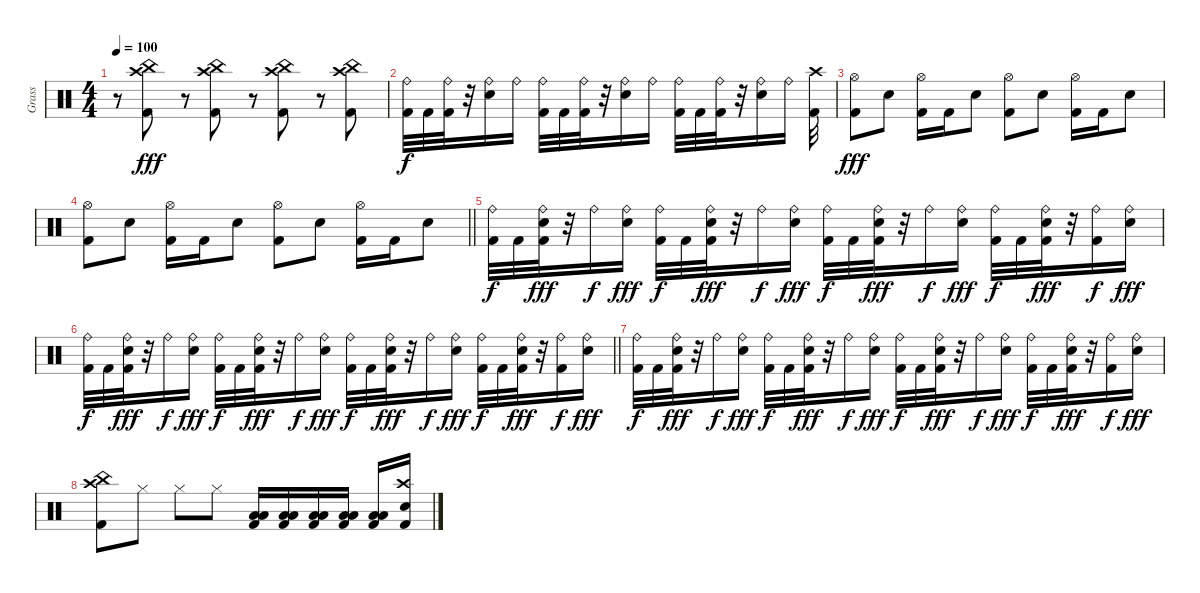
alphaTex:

\track ("Grass" "Grass") {instrument percussion}
\staff {score}
\articulation defaults
\ts (4 4)
\tempo 100
\clef neutral
\ks c
r.8{dy fff} ("Kick (hit) 2" "China (hit)" "Crash high (hit)").8 r.8 ("Kick (hit) 2" "China (hit)" "Crash high (hit)").8 r.8 ("Kick (hit) 2" "China (hit)" "Crash high (hit)").8 r.8 ("Kick (hit) 2" "China (hit)" "Crash high (hit)").8 |
("Kick (hit) 2" "Ride (bell)").32{dy f} "Kick (hit) 2".32 ("Kick (hit) 2" "Ride (bell)").32 r.32 ("Electric Snare (hit)" "Ride (bell)").16 "Ride (bell)".16 ("Kick (hit) 2" "Ride (bell)").32 "Kick (hit) 2".32 ("Kick (hit) 2" "Ride (bell)").32 r.32 ("Electric Snare (hit)" "Ride (bell)").16 "Ride (bell)".16 ("Kick (hit) 2" "Ride (bell)").32 "Kick (hit) 2".32 ("Kick (hit) 2" "Ride (bell)").32 r.32 ("Electric Snare (hit)" "Ride (bell)").16 "Ride (bell)".16 ("Kick (hit) 2" "Crash high (hit)").32 |
("Kick (hit) 2" "Hi-Hat (open)").8{dy fff} "Electric Snare (hit)".8 ("Kick (hit) 2" "Hi-Hat (open)").16 "Kick (hit) 2".16 "Electric Snare (hit)".8 ("Kick (hit) 2" "Hi-Hat (open)").8 "Electric Snare (hit)".8 ("Kick (hit) 2" "Hi-Hat (open)").16 "Kick (hit) 2".16 "Electric Snare (hit)".8 |
\barLineRight lightlight
("Kick (hit) 2" "Hi-Hat (open)").8 "Electric Snare (hit)".8 ("Kick (hit) 2" "Hi-Hat (open)").16 "Kick (hit) 2".16 "Electric Snare (hit)".8 ("Kick (hit) 2" "Hi-Hat (open)").8 "Electric Snare (hit)".8 ("Kick (hit) 2" "Hi-Hat (open)").16 "Kick (hit) 2".16 "Electric Snare (hit)".8 |
("Kick (hit) 2" "Ride (bell)").32{dy f} "Kick (hit) 2".32 ("Kick (hit) 2" "Electric Snare (hit)" "Ride (bell)").32{dy fff} r.32 "Ride (bell)".16{dy f} ("Electric Snare (hit)" "Ride (bell)").16{dy fff} ("Kick (hit) 2" "Ride (bell)").32{dy f} "Kick (hit) 2".32 ("Kick (hit) 2" "Electric Snare (hit)" "Ride (bell)").32{dy fff} r.32 "Ride (bell)".16{dy f} ("Electric Snare (hit)" "Ride (bell)").16{dy fff} ("Kick (hit) 2" "Ride (bell)").32{dy f} "Kick (hit) 2".32 ("Kick (hit) 2" "Electric Snare (hit)" "Ride (bell)").32{dy fff} r.32 "Ride (bell)".16{dy f} ("Electric Snare (hit)" "Ride (bell)").16{dy fff} ("Kick (hit) 2" "Ride (bell)").32{dy f} "Kick (hit) 2".32 ("Kick (hit) 2" "Electric Snare (hit)" "Ride (bell)").32{dy fff} r.32 ("Kick (hit) 2" "Ride (bell)").16{dy f} ("Electric Snare (hit)" "Ride (bell)").16{dy fff} |
\barLineRight lightlight
("Kick (hit) 2" "Ride (bell)").32{dy f} "Kick (hit) 2".32 ("Kick (hit) 2" "Electric Snare (hit)" "Ride (bell)").32{dy fff} r.32 "Ride (bell)".16{dy f} ("Electric Snare (hit)" "Ride (bell)").16{dy fff} ("Kick (hit) 2" "Ride (bell)").32{dy f} "Kick (hit) 2".32 ("Kick (hit) 2" "Electric Snare (hit)" "Ride (bell)").32{dy fff} r.32 "Ride (bell)".16{dy f} ("Electric Snare (hit)" "Ride (bell)").16{dy fff} ("Kick (hit) 2" "Ride (bell)").32{dy f} "Kick (hit) 2".32 ("Kick (hit) 2" "Electric Snare (hit)" "Ride (bell)").32{dy fff} r.32 "Ride (bell)".16{dy f} ("Electric Snare (hit)" "Ride (bell)").16{dy fff} ("Kick (hit) 2" "Ride (bell)").32{dy f} "Kick (hit) 2".32 ("Kick (hit) 2" "Electric Snare (hit)" "Ride (bell)").32{dy fff} r.32 ("Kick (hit) 2" "Ride (bell)").16{dy f} ("Electric Snare (hit)" "Ride (bell)").16{dy fff} |
("Kick (hit) 2" "Ride (bell)").32{dy f} "Kick (hit) 2".32 ("Kick (hit) 2" "Electric Snare (hit)" "Ride (bell)").32{dy fff} r.32 "Ride (bell)".16{dy f} ("Electric Snare (hit)" "Ride (bell)").16{dy fff} ("Kick (hit) 2" "Ride (bell)").32{dy f} "Kick (hit) 2".32 ("Kick (hit) 2" "Electric Snare (hit)" "Ride (bell)").32{dy fff} r.32 "Ride (bell)".16{dy f} ("Electric Snare (hit)" "Ride (bell)").16{dy fff} ("Kick (hit) 2" "Ride (bell)").32{dy f} "Kick (hit) 2".32 ("Kick (hit) 2" "Electric Snare (hit)" "Ride (bell)").32{dy fff} r.32 "Ride (bell)".16{dy f} ("Electric Snare (hit)" "Ride (bell)").16{dy fff} ("Kick (hit) 2" "Ride (bell)").32{dy f} "Kick (hit) 2".32 ("Kick (hit) 2" "Electric Snare (hit)" "Ride (bell)").32{dy fff} r.32 ("Kick (hit) 2" "Ride (bell)").16{dy f} ("Electric Snare (hit)" "Ride (bell)").16{dy fff} |
("Kick (hit) 2" "China (hit)" "Crash high (hit)").8 "Hi-Hat (closed)".8 "Hi-Hat (closed)".8 "Hi-Hat (closed)".8 ("Kick (hit) 2" "Low Tom (hit)" "Low Floor Tom (hit)").16 ("Kick (hit) 2" "Low Tom (hit)" "Low Floor Tom (hit)").16 ("Kick (hit) 2" "Low Tom (hit)" "Low Floor Tom (hit)").16 ("Kick (hit) 2" "Low Tom (hit)" "Low Floor Tom (hit)").16 ("Kick (hit) 2" "Low Tom (hit)" "Low Floor Tom (hit)").16 ("Kick (hit) 2" "Electric Snare (hit)" "Crash high (hit)").16
